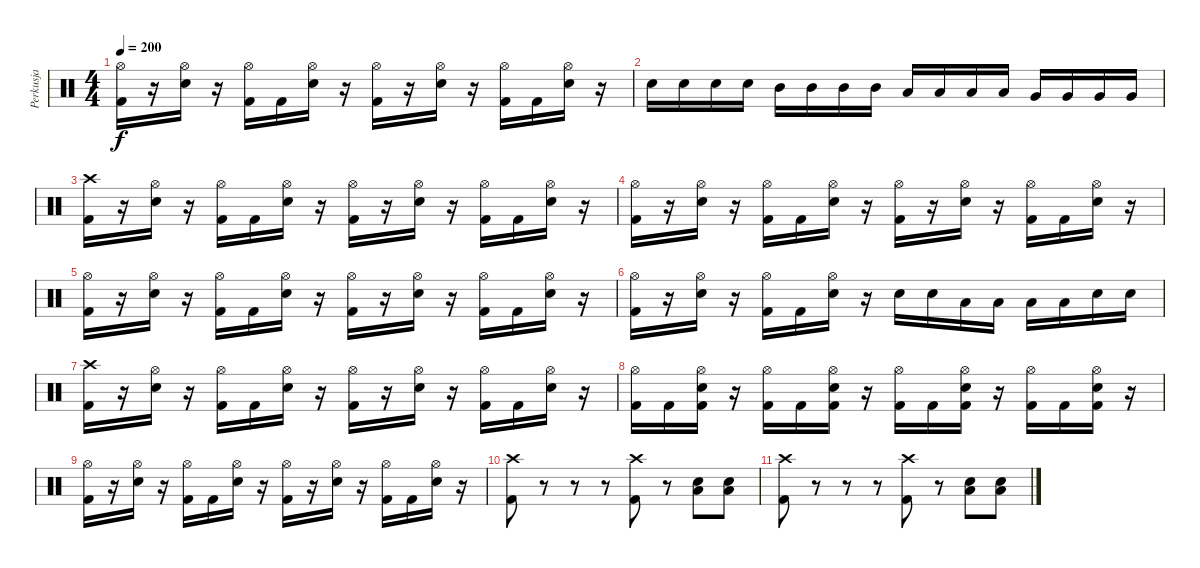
\track ("Perkusja" "Perkusja") {instrument percussion}
\staff {score}
\articulation defaults
\ts (4 4)
\tempo 200
\clef neutral
\ks c
("Hi-Hat (open)" "Kick (hit) 2").16{dy f} r.16 ("Hi-Hat (open)" "Snare (hit) 2").16 r.16 ("Hi-Hat (open)" "Kick (hit) 2").16 "Kick (hit) 2".16 ("Hi-Hat (open)" "Snare (hit) 2").16 r.16 ("Hi-Hat (open)" "Kick (hit) 2").16 r.16 ("Hi-Hat (open)" "Snare (hit) 2").16 r.16 ("Hi-Hat (open)" "Kick (hit) 2").16 "Kick (hit) 2".16 ("Hi-Hat (open)" "Snare (hit) 2").16 r.16 |
"Snare (hit) 2".16 "Snare (hit) 2".16 "Snare (hit) 2".16 "Snare (hit) 2".16 "Mid Tom (hit)".16 "Mid Tom (hit)".16 "Mid Tom (hit)".16 "Mid Tom (hit)".16 "Low Tom (hit)".16 "Low Tom (hit)".16 "Low Tom (hit)".16 "Low Tom (hit)".16 "Very Low Tom (hit)".16 "Very Low Tom (hit)".16 "Very Low Tom (hit)".16 "Very Low Tom (hit)".16 |
("Crash high (hit)" "Kick (hit) 2").16 r.16 ("Hi-Hat (open)" "Snare (hit) 2").16 r.16 ("Hi-Hat (open)" "Kick (hit) 2").16 "Kick (hit) 2".16 ("Hi-Hat (open)" "Snare (hit) 2").16 r.16 ("Hi-Hat (open)" "Kick (hit) 2").16 r.16 ("Hi-Hat (open)" "Snare (hit) 2").16 r.16 ("Hi-Hat (open)" "Kick (hit) 2").16 "Kick (hit) 2".16 ("Hi-Hat (open)" "Snare (hit) 2").16 r.16 |
("Hi-Hat (open)" "Kick (hit) 2").16 r.16 ("Hi-Hat (open)" "Snare (hit) 2").16 r.16 ("Hi-Hat (open)" "Kick (hit) 2").16 "Kick (hit) 2".16 ("Hi-Hat (open)" "Snare (hit) 2").16 r.16 ("Hi-Hat (open)" "Kick (hit) 2").16 r.16 ("Hi-Hat (open)" "Snare (hit) 2").16 r.16 ("Hi-Hat (open)" "Kick (hit) 2").16 "Kick (hit) 2".16 ("Hi-Hat (open)" "Snare (hit) 2").16 r.16 |
("Hi-Hat (open)" "Kick (hit) 2").16 r.16 ("Hi-Hat (open)" "Snare (hit) 2").16 r.16 ("Hi-Hat (open)" "Kick (hit) 2").16 "Kick (hit) 2".16 ("Hi-Hat (open)" "Snare (hit) 2").16 r.16 ("Hi-Hat (open)" "Kick (hit) 2").16 r.16 ("Hi-Hat (open)" "Snare (hit) 2").16 r.16 ("Hi-Hat (open)" "Kick (hit) 2").16 "Kick (hit) 2".16 ("Hi-Hat (open)" "Snare (hit) 2").16 r.16 |
("Hi-Hat (open)" "Kick (hit) 2").16 r.16 ("Hi-Hat (open)" "Snare (hit) 2").16 r.16 ("Hi-Hat (open)" "Kick (hit) 2").16 "Kick (hit) 2".16 ("Hi-Hat (open)" "Snare (hit) 2").16 r.16 "Snare (hit) 2".16 "Snare (hit) 2".16 "Low Tom (hit)".16 "Low Tom (hit)".16 "Low Tom (hit)".16 "Low Tom (hit)".16 "Snare (hit) 2".16 "Snare (hit) 2".16 |
("Crash high (hit)" "Kick (hit) 2").16 r.16 ("Hi-Hat (open)" "Snare (hit) 2").16 r.16 ("Hi-Hat (open)" "Kick (hit) 2").16 "Kick (hit) 2".16 ("Hi-Hat (open)" "Snare (hit) 2").16 r.16 ("Hi-Hat (open)" "Kick (hit) 2").16 r.16 ("Hi-Hat (open)" "Snare (hit) 2").16 r.16 ("Hi-Hat (open)" "Kick (hit) 2").16 "Kick (hit) 2".16 ("Hi-Hat (open)" "Snare (hit) 2").16 r.16 |
("Hi-Hat (open)" "Kick (hit) 2").16 "Kick (hit) 2".16 ("Hi-Hat (open)" "Snare (hit) 2" "Kick (hit) 2").16 r.16 ("Hi-Hat (open)" "Kick (hit) 2").16 "Kick (hit) 2".16 ("Hi-Hat (open)" "Snare (hit) 2" "Kick (hit) 2").16 r.16 ("Hi-Hat (open)" "Kick (hit) 2").16 "Kick (hit) 2".16 ("Hi-Hat (open)" "Snare (hit) 2" "Kick (hit) 2").16 r.16 ("Hi-Hat (open)" "Kick (hit) 2").16 "Kick (hit) 2".16 ("Hi-Hat (open)" "Snare (hit) 2" "Kick (hit) 2").16 r.16 |
("Hi-Hat (open)" "Kick (hit) 2").16 r.16 ("Hi-Hat (open)" "Snare (hit) 2").16 r.16 ("Hi-Hat (open)" "Kick (hit) 2").16 "Kick (hit) 2".16 ("Hi-Hat (open)" "Snare (hit) 2").16 r.16 ("Hi-Hat (open)" "Kick (hit) 2").16 r.16 ("Hi-Hat (open)" "Snare (hit) 2").16 r.16 ("Hi-Hat (open)" "Kick (hit) 2").16 "Kick (hit) 2".16 ("Hi-Hat (open)" "Snare (hit) 2").16 r.16 |
("Crash high (hit)" "Kick (hit) 2").8 r.8 r.8 r.8 ("Crash high (hit)" "Kick (hit) 2").8 r.8 ("Snare (hit) 2" "Low Floor Tom (hit)").8 ("Snare (hit) 2" "Low Floor Tom (hit)").8 |
("Crash high (hit)" "Kick (hit) 2").8 r.8 r.8 r.8 ("Crash high (hit)" "Kick (hit) 2").8 r.8 ("Snare (hit) 2" "Low Floor Tom (hit)").8 ("Snare (hit) 2" "Low Floor Tom (hit)").8
